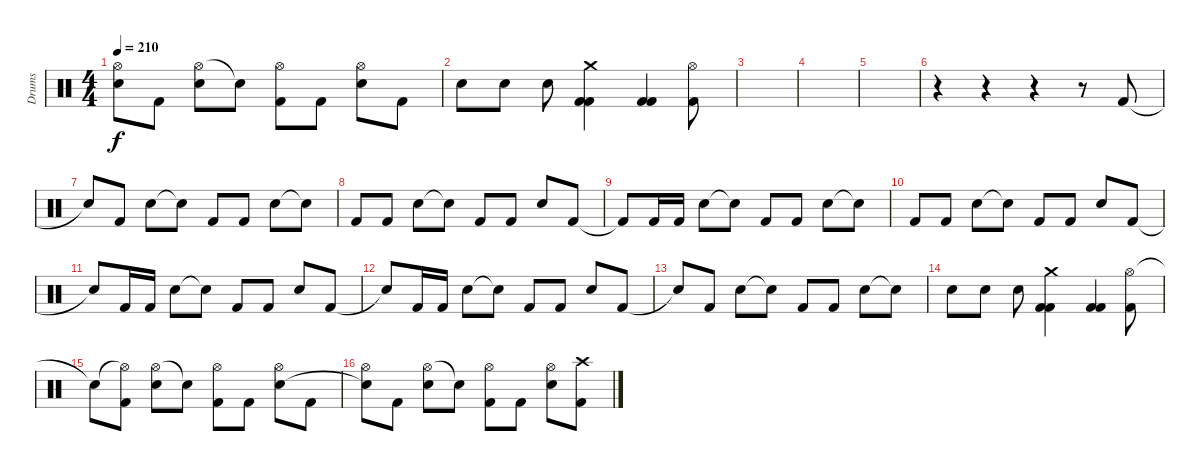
\track ("Drums" "Drums") {instrument percussion}
\staff {score}
\articulation defaults
\ts (4 4)
\tempo 210
\clef neutral
\ks c
("Hi-Hat (open)" "Snare (hit)"{t}).8{dy f} "Kick (hit) 2".8 ("Hi-Hat (open)" "Electric Snare (hit)").8 "Electric Snare (hit)"{t}.8 ("Hi-Hat (open)" "Kick (hit) 2").8 "Kick (hit) 2".8 ("Hi-Hat (open)" "Electric Snare (hit)").8 "Kick (hit) 2".8 |
"Electric Snare (hit)".8 "Electric Snare (hit)".8 "Electric Snare (hit)".8 ("Crash medium (hit)" "Kick (hit) 2" "Kick (hit) 2").4 ("Kick (hit) 2" "Kick (hit) 2").4 ("Hi-Hat (open)" "Kick (hit) 2").8 |
|
|
|
r.4 r.4 r.4 r.8 "Kick (hit) 2".8 |
"Snare (hit)"{t}.8 "Kick (hit) 2".8 "Electric Snare (hit)".8 "Snare (hit)"{t}.8 "Kick (hit) 2".8 "Kick (hit) 2".8 "Electric Snare (hit)".8 "Snare (hit)"{t}.8 |
"Kick (hit) 2".8 "Kick (hit) 2".8 "Electric Snare (hit)".8 "Snare (hit)"{t}.8 "Kick (hit) 2".8 "Kick (hit) 2".8 "Electric Snare (hit)".8 "Kick (hit) 2".8 |
"Kick (hit) 2"{t}.8 "Kick (hit) 2".16 "Kick (hit) 2".16 "Electric Snare (hit)".8 "Snare (hit)"{t}.8 "Kick (hit) 2".8 "Kick (hit) 2".8 "Electric Snare (hit)".8 "Snare (hit)"{t}.8 |
"Kick (hit) 2".8 "Kick (hit) 2".8 "Electric Snare (hit)".8 "Snare (hit)"{t}.8 "Kick (hit) 2".8 "Kick (hit) 2".8 "Electric Snare (hit)".8 "Kick (hit) 2".8 |
"Snare (hit)"{t}.8 "Kick (hit) 2".16 "Kick (hit) 2".16 "Electric Snare (hit)".8 "Snare (hit)"{t}.8 "Kick (hit) 2".8 "Kick (hit) 2".8 "Electric Snare (hit)".8 "Kick (hit) 2".8 |
"Snare (hit)"{t}.8 "Kick (hit) 2".16 "Kick (hit) 2".16 "Electric Snare (hit)".8 "Snare (hit)"{t}.8 "Kick (hit) 2".8 "Kick (hit) 2".8 "Electric Snare (hit)".8 "Kick (hit) 2".8 |
"Snare (hit)"{t}.8 "Kick (hit) 2".8 "Electric Snare (hit)".8 "Snare (hit)"{t}.8 "Kick (hit) 2".8 "Kick (hit) 2".8 "Electric Snare (hit)".8 "Snare (hit)"{t}.8 |
"Electric Snare (hit)".8 "Electric Snare (hit)".8 "Electric Snare (hit)".8 ("Crash medium (hit)" "Kick (hit) 2" "Kick (hit) 2").4 ("Kick (hit) 2" "Kick (hit) 2").4 ("Hi-Hat (open)" "Kick (hit) 2").8 |
"Snare (hit)"{t}.8 ("Hi-Hat (open)"{t} "Kick (hit) 2").8 ("Hi-Hat (open)" "Electric Snare (hit)").8 "Snare (hit)"{t}.8 ("Hi-Hat (open)" "Kick (hit) 2").8 "Kick (hit) 2".8 ("Hi-Hat (open)" "Electric Snare (hit)").8 "Kick (hit) 2".8 |
("Hi-Hat (open)" "Snare (hit)"{t}).8 "Kick (hit) 2".8 ("Hi-Hat (open)" "Electric Snare (hit)").8 "Snare (hit)"{t}.8 ("Hi-Hat (open)" "Kick (hit) 2").8 "Kick (hit) 2".8 ("Hi-Hat (open)" "Electric Snare (hit)").8 ("Crash high (hit)" "Kick (hit) 2").8
